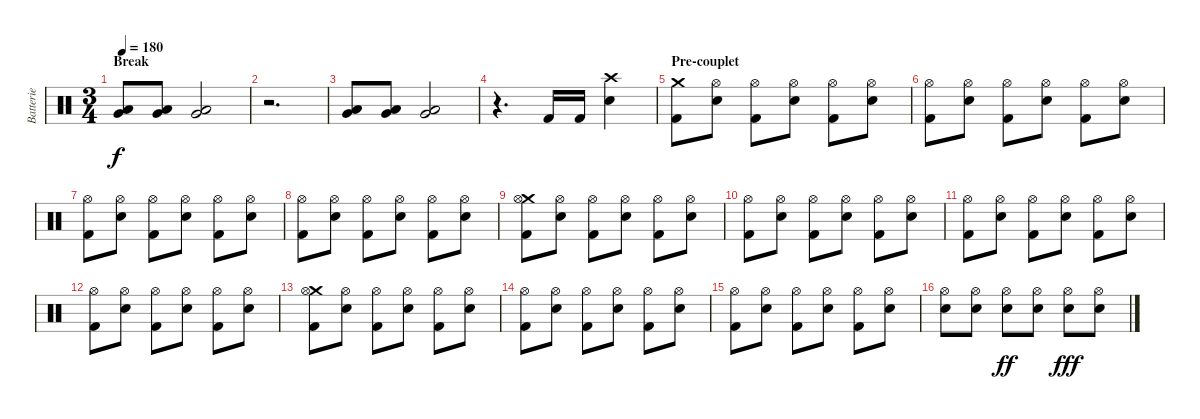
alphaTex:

\track ("Batterie" "Batterie") {instrument percussion}
\staff {score}
\articulation defaults
\ts (3 4)
\section ("" "Break")
\tempo 180
\clef neutral
\ks c
("Very Low Tom (hit)" "Low Floor Tom (hit)").8{dy f} ("Very Low Tom (hit)" "Low Floor Tom (hit)").8 ("Very Low Tom (hit)" "Low Floor Tom (hit)").2 |
r.2{d} |
("Very Low Tom (hit)" "Low Floor Tom (hit)").8 ("Very Low Tom (hit)" "Low Floor Tom (hit)").8 ("Very Low Tom (hit)" "Low Floor Tom (hit)").2 |
r.4{d} "Kick (hit) 2".16 "Kick (hit) 2".16 ("Crash high (hit)" "Electric Snare (hit)").4 |
\section ("" "Pre-couplet")
("Crash medium (hit)" "Kick (hit) 2").8 ("Hi-Hat (open)" "Electric Snare (hit)").8 ("Hi-Hat (open)" "Kick (hit) 2").8 ("Hi-Hat (open)" "Electric Snare (hit)").8 ("Hi-Hat (open)" "Kick (hit) 2").8 ("Hi-Hat (open)" "Electric Snare (hit)").8 |
("Hi-Hat (open)" "Kick (hit) 2").8 ("Hi-Hat (open)" "Electric Snare (hit)").8 ("Hi-Hat (open)" "Kick (hit) 2").8 ("Hi-Hat (open)" "Electric Snare (hit)").8 ("Hi-Hat (open)" "Kick (hit) 2").8 ("Hi-Hat (open)" "Electric Snare (hit)").8 |
("Hi-Hat (open)" "Kick (hit) 2").8 ("Hi-Hat (open)" "Electric Snare (hit)").8 ("Hi-Hat (open)" "Kick (hit) 2").8 ("Hi-Hat (open)" "Electric Snare (hit)").8 ("Hi-Hat (open)" "Kick (hit) 2").8 ("Hi-Hat (open)" "Electric Snare (hit)").8 |
("Hi-Hat (open)" "Kick (hit) 2").8 ("Hi-Hat (open)" "Electric Snare (hit)").8 ("Hi-Hat (open)" "Kick (hit) 2").8 ("Hi-Hat (open)" "Electric Snare (hit)").8 ("Hi-Hat (open)" "Kick (hit) 2").8 ("Hi-Hat (open)" "Electric Snare (hit)").8 |
("Crash medium (hit)" "Hi-Hat (open)" "Kick (hit) 2").8 ("Hi-Hat (open)" "Electric Snare (hit)").8 ("Hi-Hat (open)" "Kick (hit) 2").8 ("Hi-Hat (open)" "Electric Snare (hit)").8 ("Hi-Hat (open)" "Kick (hit) 2").8 ("Hi-Hat (open)" "Electric Snare (hit)").8 |
("Hi-Hat (open)" "Kick (hit) 2").8 ("Hi-Hat (open)" "Electric Snare (hit)").8 ("Hi-Hat (open)" "Kick (hit) 2").8 ("Hi-Hat (open)" "Electric Snare (hit)").8 ("Hi-Hat (open)" "Kick (hit) 2").8 ("Hi-Hat (open)" "Electric Snare (hit)").8 |
("Hi-Hat (open)" "Kick (hit) 2").8 ("Hi-Hat (open)" "Electric Snare (hit)").8 ("Hi-Hat (open)" "Kick (hit) 2").8 ("Hi-Hat (open)" "Electric Snare (hit)").8 ("Hi-Hat (open)" "Kick (hit) 2").8 ("Hi-Hat (open)" "Electric Snare (hit)").8 |
("Hi-Hat (open)" "Kick (hit) 2").8 ("Hi-Hat (open)" "Electric Snare (hit)").8 ("Hi-Hat (open)" "Kick (hit) 2").8 ("Hi-Hat (open)" "Electric Snare (hit)").8 ("Hi-Hat (open)" "Kick (hit) 2").8 ("Hi-Hat (open)" "Electric Snare (hit)").8 |
("Crash medium (hit)" "Hi-Hat (open)" "Kick (hit) 2").8 ("Hi-Hat (open)" "Electric Snare (hit)").8 ("Hi-Hat (open)" "Kick (hit) 2").8 ("Hi-Hat (open)" "Electric Snare (hit)").8 ("Hi-Hat (open)" "Kick (hit) 2").8 ("Hi-Hat (open)" "Electric Snare (hit)").8 |
("Hi-Hat (open)" "Kick (hit) 2").8 ("Hi-Hat (open)" "Electric Snare (hit)").8 ("Hi-Hat (open)" "Kick (hit) 2").8 ("Hi-Hat (open)" "Electric Snare (hit)").8 ("Hi-Hat (open)" "Kick (hit) 2").8 ("Hi-Hat (open)" "Electric Snare (hit)").8 |
("Hi-Hat (open)" "Kick (hit) 2").8 ("Hi-Hat (open)" "Electric Snare (hit)").8 ("Hi-Hat (open)" "Kick (hit) 2").8 ("Hi-Hat (open)" "Electric Snare (hit)").8 ("Hi-Hat (open)" "Kick (hit) 2").8 ("Hi-Hat (open)" "Electric Snare (hit)").8 |
("Hi-Hat (open)" "Electric Snare (hit)").8 ("Hi-Hat (open)" "Electric Snare (hit)").8 ("Hi-Hat (open)" "Electric Snare (hit)").8{dy ff} ("Hi-Hat (open)" "Electric Snare (hit)").8 ("Hi-Hat (open)" "Electric Snare (hit)").8{dy fff} ("Hi-Hat (open)" "Electric Snare (hit)").8
